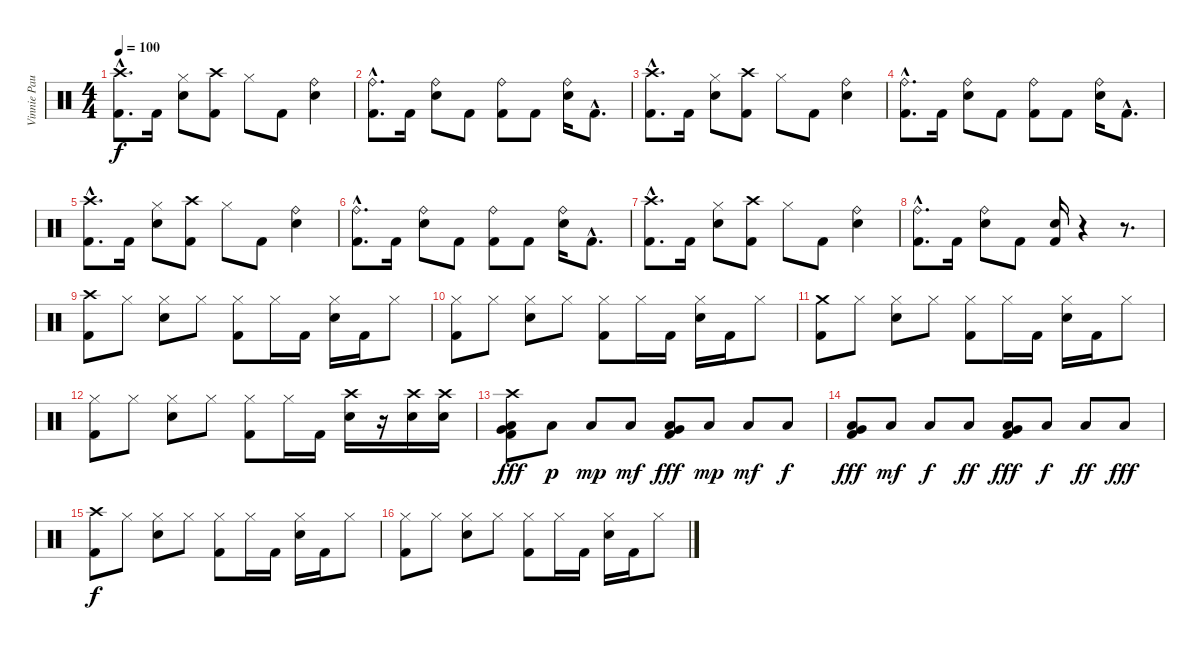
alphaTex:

\track ("Vinnie Paul # Drums" "Vinnie Pau") {instrument percussion}
\staff {score}
\articulation defaults
\ts (4 4)
\tempo 100
\clef neutral
\ks c
("Crash high (hit)"{hac} "Kick (hit) 2"{hac}).8{d dy f} "Kick (hit) 2".16 ("Hi-Hat (closed)" "Electric Snare (hit)").8 ("Crash high (hit)" "Kick (hit) 2").8 "Hi-Hat (closed)".8 "Kick (hit) 2".8 ("Ride (bell)" "Electric Snare (hit)").4 |
("Ride (bell)"{hac} "Kick (hit) 2"{hac}).8{d} "Kick (hit) 2".16 ("Ride (bell)" "Electric Snare (hit)").8 "Kick (hit) 2".8 ("Ride (bell)" "Kick (hit) 2").8 "Kick (hit) 2".8 ("Ride (bell)" "Electric Snare (hit)").16 "Kick (hit) 2"{hac}.8{d} |
("Crash high (hit)"{hac} "Kick (hit) 2"{hac}).8{d} "Kick (hit) 2".16 ("Hi-Hat (closed)" "Electric Snare (hit)").8 ("Crash high (hit)" "Kick (hit) 2").8 "Hi-Hat (closed)".8 "Kick (hit) 2".8 ("Ride (bell)" "Electric Snare (hit)").4 |
("Ride (bell)"{hac} "Kick (hit) 2"{hac}).8{d} "Kick (hit) 2".16 ("Ride (bell)" "Electric Snare (hit)").8 "Kick (hit) 2".8 ("Ride (bell)" "Kick (hit) 2").8 "Kick (hit) 2".8 ("Ride (bell)" "Electric Snare (hit)").16 "Kick (hit) 2"{hac}.8{d} |
("Crash high (hit)"{hac} "Kick (hit) 2"{hac}).8{d} "Kick (hit) 2".16 ("Hi-Hat (closed)" "Electric Snare (hit)").8 ("Crash high (hit)" "Kick (hit) 2").8 "Hi-Hat (closed)".8 "Kick (hit) 2".8 ("Ride (bell)" "Electric Snare (hit)").4 |
("Ride (bell)"{hac} "Kick (hit) 2"{hac}).8{d} "Kick (hit) 2".16 ("Ride (bell)" "Electric Snare (hit)").8 "Kick (hit) 2".8 ("Ride (bell)" "Kick (hit) 2").8 "Kick (hit) 2".8 ("Ride (bell)" "Electric Snare (hit)").16 "Kick (hit) 2"{hac}.8{d} |
("Crash high (hit)"{hac} "Kick (hit) 2"{hac}).8{d} "Kick (hit) 2".16 ("Hi-Hat (closed)" "Electric Snare (hit)").8 ("Crash high (hit)" "Kick (hit) 2").8 "Hi-Hat (closed)".8 "Kick (hit) 2".8 ("Ride (bell)" "Electric Snare (hit)").4 |
("Ride (bell)"{hac} "Kick (hit) 2"{hac}).8{d} "Kick (hit) 2".16 ("Ride (bell)" "Electric Snare (hit)").8 "Kick (hit) 2".8 ("Electric Snare (hit)" "Kick (hit) 2").16 r.4 r.8{d} |
("Crash high (hit)" "Kick (hit) 2").8 "Hi-Hat (closed)".8 ("Hi-Hat (closed)" "Electric Snare (hit)").8 "Hi-Hat (closed)".8 ("Hi-Hat (closed)" "Kick (hit) 2").8 "Hi-Hat (closed)".16 "Kick (hit) 2".16 ("Hi-Hat (closed)" "Electric Snare (hit)").16 "Kick (hit) 2".16 "Hi-Hat (closed)".8 |
("Hi-Hat (closed)" "Kick (hit) 2").8 "Hi-Hat (closed)".8 ("Hi-Hat (closed)" "Electric Snare (hit)").8 "Hi-Hat (closed)".8 ("Hi-Hat (closed)" "Kick (hit) 2").8 "Hi-Hat (closed)".16 "Kick (hit) 2".16 ("Hi-Hat (closed)" "Electric Snare (hit)").16 "Kick (hit) 2".16 "Hi-Hat (closed)".8 |
("Crash medium (hit)" "Kick (hit) 2").8 "Hi-Hat (closed)".8 ("Hi-Hat (closed)" "Electric Snare (hit)").8 "Hi-Hat (closed)".8 ("Hi-Hat (closed)" "Kick (hit) 2").8 "Hi-Hat (closed)".16 "Kick (hit) 2".16 ("Hi-Hat (closed)" "Electric Snare (hit)").16 "Kick (hit) 2".16 "Hi-Hat (closed)".8 |
("Hi-Hat (closed)" "Kick (hit) 2").8 "Hi-Hat (closed)".8 ("Hi-Hat (closed)" "Electric Snare (hit)").8 "Hi-Hat (closed)".8 ("Hi-Hat (closed)" "Kick (hit) 2").8 "Hi-Hat (closed)".16 "Kick (hit) 2".16 ("Crash high (hit)" "Electric Snare (hit)").16 r.16 ("Crash high (hit)" "Electric Snare (hit)").16 ("Crash high (hit)" "Electric Snare (hit)").16 |
("Crash high (hit)" "Very Low Tom (hit)" "Low Floor Tom (hit)" "Kick (hit) 2").8{dy fff} "Low Floor Tom (hit)".8{dy p} "Low Floor Tom (hit)".8{dy mp} "Low Floor Tom (hit)".8{dy mf} ("Very Low Tom (hit)" "Low Floor Tom (hit)" "Kick (hit) 2").8{dy fff} "Low Floor Tom (hit)".8{dy mp} "Low Floor Tom (hit)".8{dy mf} "Low Floor Tom (hit)".8{dy f} |
("Very Low Tom (hit)" "Low Floor Tom (hit)" "Kick (hit) 2").8{dy fff} "Low Floor Tom (hit)".8{dy mf} "Low Floor Tom (hit)".8{dy f} "Low Floor Tom (hit)".8{dy ff} ("Very Low Tom (hit)" "Low Floor Tom (hit)" "Kick (hit) 2").8{dy fff} "Low Floor Tom (hit)".8{dy f} "Low Floor Tom (hit)".8{dy ff} "Low Floor Tom (hit)".8{dy fff} |
("Crash high (hit)" "Kick (hit) 2").8{dy f} "Hi-Hat (closed)".8 ("Hi-Hat (closed)" "Electric Snare (hit)").8 "Hi-Hat (closed)".8 ("Hi-Hat (closed)" "Kick (hit) 2").8 "Hi-Hat (closed)".16 "Kick (hit) 2".16 ("Hi-Hat (closed)" "Electric Snare (hit)").16 "Kick (hit) 2".16 "Hi-Hat (closed)".8 |
("Hi-Hat (closed)" "Kick (hit) 2").8 "Hi-Hat (closed)".8 ("Hi-Hat (closed)" "Electric Snare (hit)").8 "Hi-Hat (closed)".8 ("Hi-Hat (closed)" "Kick (hit) 2").8 "Hi-Hat (closed)".16 "Kick (hit) 2".16 ("Hi-Hat (closed)" "Electric Snare (hit)").16 "Kick (hit) 2".16 "Hi-Hat (closed)".8
